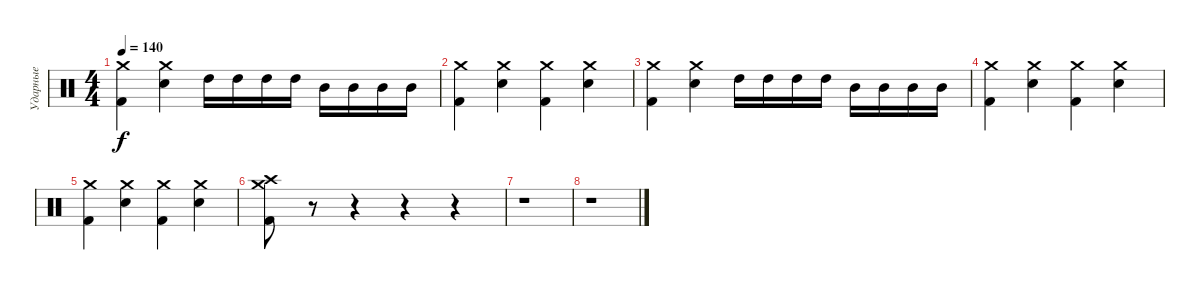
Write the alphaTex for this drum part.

\track ("Ударные" "Ударные") {instrument percussion}
\staff {score}
\articulation defaults
\ts (4 4)
\tempo 140
\clef neutral
\ks c
("Crash medium (hit)" "Kick (hit) 2").4{dy f} ("Crash medium (hit)" "Snare (hit) 2").4 "High Tom (hit)".16 "High Tom (hit)".16 "High Tom (hit)".16 "High Tom (hit)".16 "Mid Tom (hit)".16 "Mid Tom (hit)".16 "Mid Tom (hit)".16 "Mid Tom (hit)".16 |
("Crash medium (hit)" "Kick (hit) 2").4 ("Crash medium (hit)" "Snare (hit) 2").4 ("Crash medium (hit)" "Kick (hit) 2").4 ("Crash medium (hit)" "Snare (hit) 2").4 |
("Crash medium (hit)" "Kick (hit) 2").4 ("Crash medium (hit)" "Snare (hit) 2").4 "High Tom (hit)".16 "High Tom (hit)".16 "High Tom (hit)".16 "High Tom (hit)".16 "Mid Tom (hit)".16 "Mid Tom (hit)".16 "Mid Tom (hit)".16 "Mid Tom (hit)".16 |
("Crash medium (hit)" "Kick (hit) 2").4 ("Crash medium (hit)" "Snare (hit) 2").4 ("Crash medium (hit)" "Kick (hit) 2").4 ("Crash medium (hit)" "Snare (hit) 2").4 |
("Crash medium (hit)" "Kick (hit) 2").4 ("Crash medium (hit)" "Snare (hit) 2").4 ("Crash medium (hit)" "Kick (hit) 2").4 ("Crash medium (hit)" "Snare (hit) 2").4 |
("Crash medium (hit)" "Crash high (hit)" "Kick (hit) 2").8 r.8 r.4 r.4 r.4 |
r.1 |
r.1
